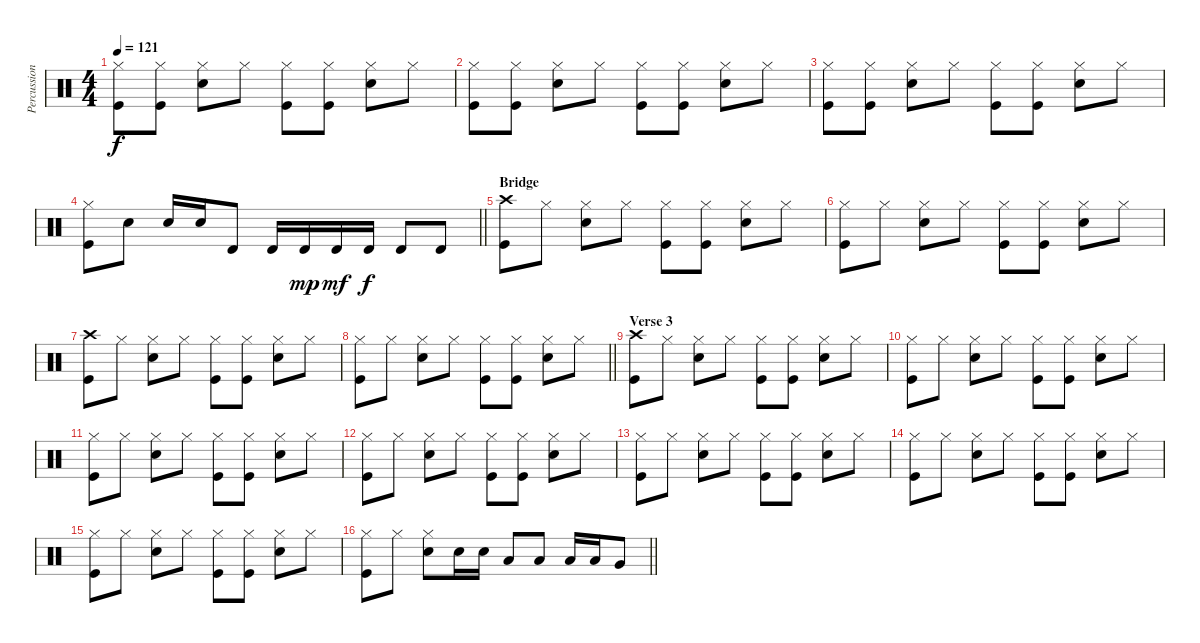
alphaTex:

\track ("Percussion" "Percussion") {instrument percussion}
\staff {score}
\articulation defaults
\ts (4 4)
\tempo 121
\clef neutral
\ks c
("Hi-Hat (closed)" "Kick (hit)").8{dy f} ("Hi-Hat (closed)" "Kick (hit)").8 ("Hi-Hat (closed)" "Snare (hit) 2").8 "Hi-Hat (closed)".8 ("Hi-Hat (closed)" "Kick (hit)").8 ("Hi-Hat (closed)" "Kick (hit)").8 ("Hi-Hat (closed)" "Snare (hit) 2").8 "Hi-Hat (closed)".8 |
("Hi-Hat (closed)" "Kick (hit)").8 ("Hi-Hat (closed)" "Kick (hit)").8 ("Hi-Hat (closed)" "Snare (hit) 2").8 "Hi-Hat (closed)".8 ("Hi-Hat (closed)" "Kick (hit)").8 ("Hi-Hat (closed)" "Kick (hit)").8 ("Hi-Hat (closed)" "Snare (hit) 2").8 "Hi-Hat (closed)".8 |
("Hi-Hat (closed)" "Kick (hit)").8 ("Hi-Hat (closed)" "Kick (hit)").8 ("Hi-Hat (closed)" "Snare (hit) 2").8 "Hi-Hat (closed)".8 ("Hi-Hat (closed)" "Kick (hit)").8 ("Hi-Hat (closed)" "Kick (hit)").8 ("Hi-Hat (closed)" "Snare (hit) 2").8 "Hi-Hat (closed)".8 |
\barLineRight lightlight
("Hi-Hat (closed)" "Kick (hit)").8 "Snare (hit) 2".8 "Snare (hit) 2".16 "Snare (hit) 2".16 "Timbale high (hit)".8 "Timbale high (hit)".16 "Timbale high (hit)".16{dy mp} "Timbale high (hit)".16{dy mf} "Timbale high (hit)".16{dy f} "Timbale high (hit)".8 "Timbale high (hit)".8 |
\section ("" "Bridge")
("Crash high (hit)" "Kick (hit)").8 "Hi-Hat (closed)".8 ("Hi-Hat (closed)" "Snare (hit) 2").8 "Hi-Hat (closed)".8 ("Hi-Hat (closed)" "Kick (hit)").8 ("Hi-Hat (closed)" "Kick (hit)").8 ("Hi-Hat (closed)" "Snare (hit) 2").8 "Hi-Hat (closed)".8 |
("Hi-Hat (closed)" "Kick (hit)").8 "Hi-Hat (closed)".8 ("Hi-Hat (closed)" "Snare (hit) 2").8 "Hi-Hat (closed)".8 ("Hi-Hat (closed)" "Kick (hit)").8 ("Hi-Hat (closed)" "Kick (hit)").8 ("Hi-Hat (closed)" "Snare (hit) 2").8 "Hi-Hat (closed)".8 |
("Crash high (hit)" "Kick (hit)").8 "Hi-Hat (closed)".8 ("Hi-Hat (closed)" "Snare (hit) 2").8 "Hi-Hat (closed)".8 ("Hi-Hat (closed)" "Kick (hit)").8 ("Hi-Hat (closed)" "Kick (hit)").8 ("Hi-Hat (closed)" "Snare (hit) 2").8 "Hi-Hat (closed)".8 |
\barLineRight lightlight
("Hi-Hat (closed)" "Kick (hit)").8 "Hi-Hat (closed)".8 ("Hi-Hat (closed)" "Snare (hit) 2").8 "Hi-Hat (closed)".8 ("Hi-Hat (closed)" "Kick (hit)").8 ("Hi-Hat (closed)" "Kick (hit)").8 ("Hi-Hat (closed)" "Snare (hit) 2").8 "Hi-Hat (closed)".8 |
\section ("" "Verse 3")
("Crash high (hit)" "Kick (hit)").8 "Hi-Hat (closed)".8 ("Hi-Hat (closed)" "Snare (hit) 2").8 "Hi-Hat (closed)".8 ("Hi-Hat (closed)" "Kick (hit)").8 ("Hi-Hat (closed)" "Kick (hit)").8 ("Hi-Hat (closed)" "Snare (hit) 2").8 "Hi-Hat (closed)".8 |
("Hi-Hat (closed)" "Kick (hit)").8 "Hi-Hat (closed)".8 ("Hi-Hat (closed)" "Snare (hit) 2").8 "Hi-Hat (closed)".8 ("Hi-Hat (closed)" "Kick (hit)").8 ("Hi-Hat (closed)" "Kick (hit)").8 ("Hi-Hat (closed)" "Snare (hit) 2").8 "Hi-Hat (closed)".8 |
("Hi-Hat (closed)" "Kick (hit)").8 "Hi-Hat (closed)".8 ("Hi-Hat (closed)" "Snare (hit) 2").8 "Hi-Hat (closed)".8 ("Hi-Hat (closed)" "Kick (hit)").8 ("Hi-Hat (closed)" "Kick (hit)").8 ("Hi-Hat (closed)" "Snare (hit) 2").8 "Hi-Hat (closed)".8 |
("Hi-Hat (closed)" "Kick (hit)").8 "Hi-Hat (closed)".8 ("Hi-Hat (closed)" "Snare (hit) 2").8 "Hi-Hat (closed)".8 ("Hi-Hat (closed)" "Kick (hit)").8 ("Hi-Hat (closed)" "Kick (hit)").8 ("Hi-Hat (closed)" "Snare (hit) 2").8 "Hi-Hat (closed)".8 |
("Hi-Hat (closed)" "Kick (hit)").8 "Hi-Hat (closed)".8 ("Hi-Hat (closed)" "Snare (hit) 2").8 "Hi-Hat (closed)".8 ("Hi-Hat (closed)" "Kick (hit)").8 ("Hi-Hat (closed)" "Kick (hit)").8 ("Hi-Hat (closed)" "Snare (hit) 2").8 "Hi-Hat (closed)".8 |
("Hi-Hat (closed)" "Kick (hit)").8 "Hi-Hat (closed)".8 ("Hi-Hat (closed)" "Snare (hit) 2").8 "Hi-Hat (closed)".8 ("Hi-Hat (closed)" "Kick (hit)").8 ("Hi-Hat (closed)" "Kick (hit)").8 ("Hi-Hat (closed)" "Snare (hit) 2").8 "Hi-Hat (closed)".8 |
("Hi-Hat (closed)" "Kick (hit)").8 "Hi-Hat (closed)".8 ("Hi-Hat (closed)" "Snare (hit) 2").8 "Hi-Hat (closed)".8 ("Hi-Hat (closed)" "Kick (hit)").8 ("Hi-Hat (closed)" "Kick (hit)").8 ("Hi-Hat (closed)" "Snare (hit) 2").8 "Hi-Hat (closed)".8 |
\barLineRight lightlight
("Hi-Hat (closed)" "Kick (hit)").8 "Hi-Hat (closed)".8 ("Hi-Hat (closed)" "Snare (hit) 2").8 "Snare (hit) 2".16 "Snare (hit) 2".16 "Low Tom (hit)".8 "Low Tom (hit)".8 "Low Tom (hit)".16 "Low Tom (hit)".16 "Very Low Tom (hit)".8
